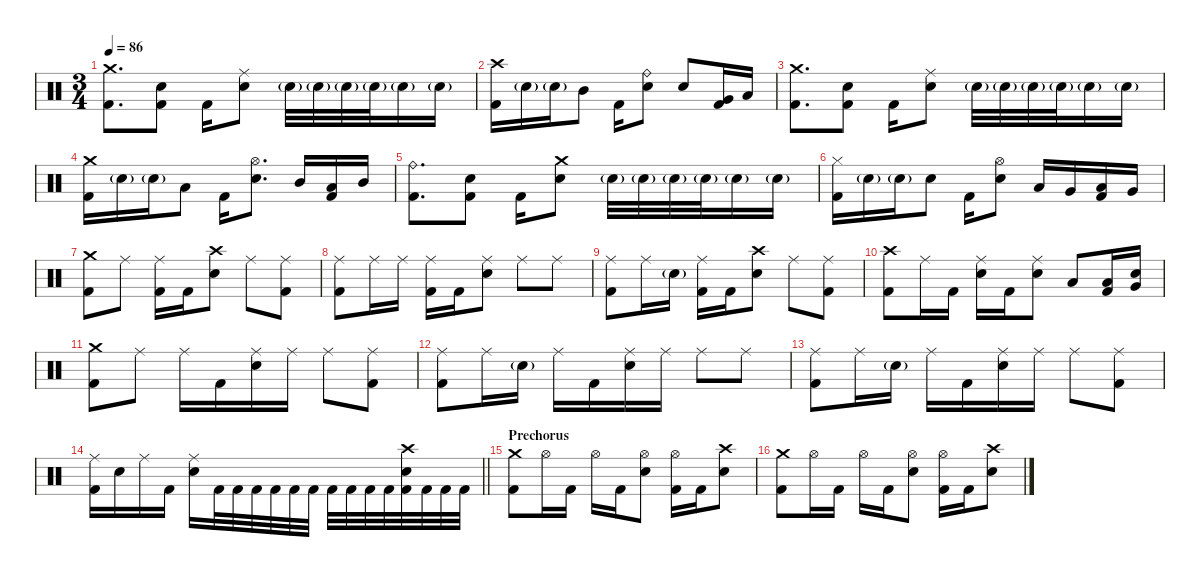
\defaultSystemsLayout 4
\hideDynamics
\bracketExtendMode nobrackets
\singleTrackTrackNamePolicy hidden
\multiTrackTrackNamePolicy hidden
\otherSystemsTrackNameOrientation horizontal
\track ("Drums" "drm.") {instrument percussion}
\staff {score}
\articulation defaults
\ts (3 4)
\tempo 86
\clef neutral
\ks c
("Crash medium (hit)" "Kick (hit) 2").8{d dy f beam Down} ("Snare (hit) 2" "Kick (hit) 2").8{beam Down} "Kick (hit) 2".16{beam Down} ("Ride (middle)" "Snare (hit) 2").8{beam Down} "Snare (hit) 2"{g}.32{dy mf beam Down} "Snare (hit) 2"{g}.32{beam Down} "Snare (hit) 2"{g}.32{beam Down} "Snare (hit) 2"{g}.32{beam Down} "Snare (hit) 2"{g}.16{beam Down} "Snare (hit) 2"{g}.16{beam Down} |
("Crash high (hit)" "Kick (hit) 2").16{dy f beam Down} "Snare (hit) 2"{g}.16{dy mf beam Down} "Snare (hit) 2"{g}.16{beam Down} "Mid Tom (hit)".8{dy f beam Down} "Kick (hit) 2".16{beam Down} ("Ride (bell)" "Snare (hit) 2").8{beam Down} "Snare (hit) 2".8{beam Up} ("Very Low Tom (hit)" "Kick (hit) 2").16{beam Up} "Low Tom (hit)".16{beam Up} |
("Crash medium (hit)" "Kick (hit) 2").8{d beam Down} ("Snare (hit) 2" "Kick (hit) 2").8{beam Down} "Kick (hit) 2".16{beam Down} ("Ride (middle)" "Snare (hit) 2").8{beam Down} "Snare (hit) 2"{g}.32{dy mf beam Down} "Snare (hit) 2"{g}.32{beam Down} "Snare (hit) 2"{g}.32{beam Down} "Snare (hit) 2"{g}.32{beam Down} "Snare (hit) 2"{g}.16{beam Down} "Snare (hit) 2"{g}.16{beam Down} |
("Crash medium (hit)" "Kick (hit) 2").16{dy f beam Down} "Snare (hit) 2"{g}.16{dy mf beam Down} "Snare (hit) 2"{g}.16{beam Down} "Low Tom (hit)".8{dy f beam Down} "Kick (hit) 2".16{beam Down} ("Hi-Hat (open)" "Snare (hit) 2").8{d beam Down} "Mid Tom (hit)".16{beam Up} ("Low Tom (hit)" "Kick (hit) 2").16{beam Up} "Mid Tom (hit)".16{beam Up} |
("Ride (bell)" "Kick (hit) 2").8{d beam Down} ("Snare (hit) 2" "Kick (hit) 2").8{beam Down} "Kick (hit) 2".16{beam Down} ("Crash medium (hit)" "Snare (hit) 2").8{beam Down} "Snare (hit) 2"{g}.32{dy mf beam Down} "Snare (hit) 2"{g}.32{beam Down} "Snare (hit) 2"{g}.32{beam Down} "Snare (hit) 2"{g}.32{beam Down} "Snare (hit) 2"{g}.16{beam Down} "Snare (hit) 2"{g}.16{beam Down} |
("Hi-Hat (closed)" "Kick (hit) 2").16{dy f beam Down} "Snare (hit) 2"{g}.16{dy mf beam Down} "Snare (hit) 2"{g}.16{beam Down} "Snare (hit) 2".8{dy f beam Down} "Kick (hit) 2".16{beam Down} ("Hi-Hat (open)" "Snare (hit) 2").8{beam Down} "Low Tom (hit)".16{beam Up} "Very Low Tom (hit)".16{beam Up} ("Low Floor Tom (hit)" "Kick (hit) 2").16{beam Up} "Very Low Tom (hit)".16{beam Up} |
("Crash medium (hit)" "Kick (hit) 2").8{beam Down} "Ride (middle)".8{beam Down} ("Ride (middle)" "Kick (hit) 2").16{beam Down} "Kick (hit) 2".16{beam Down} ("Crash high (hit)" "Snare (hit) 2").8{beam Down} "Ride (middle)".8{beam Down} ("Ride (middle)" "Kick (hit) 2").8{beam Down} |
("Ride (middle)" "Kick (hit) 2").8{beam Down} "Ride (middle)".16{beam Down} "Ride (middle)".16{beam Down} ("Ride (middle)" "Kick (hit) 2").16{beam Down} "Kick (hit) 2".16{beam Down} ("Ride (middle)" "Snare (hit) 2").8{beam Down} "Ride (middle)".8{beam Down} "Ride (middle)".8{beam Down} |
("Ride (middle)" "Kick (hit) 2").8{beam Down} "Ride (middle)".16{beam Down} "Snare (hit) 2"{g}.16{dy mf beam Down} ("Ride (middle)" "Kick (hit) 2").16{dy f beam Down} "Kick (hit) 2".16{beam Down} ("Crash high (hit)" "Snare (hit) 2").8{beam Down} "Ride (middle)".8{beam Down} ("Ride (middle)" "Kick (hit) 2").8{beam Down} |
("Crash high (hit)" "Kick (hit) 2").8{beam Down} "Ride (middle)".16{beam Down} "Kick (hit) 2".16{beam Down} ("Ride (middle)" "Snare (hit) 2").16{beam Down} "Kick (hit) 2".16{beam Down} ("Ride (middle)" "Snare (hit) 2").8{beam Down} "Low Tom (hit)".8{beam Up} ("Low Tom (hit)" "Kick (hit) 2").16{beam Up} ("Snare (hit) 2" "Very Low Tom (hit)").16{beam Up} |
("Crash medium (hit)" "Kick (hit) 2").8{beam Down} "Ride (middle)".8{beam Down} "Ride (middle)".16{beam Down} "Kick (hit) 2".16{beam Down} ("Ride (middle)" "Snare (hit) 2").16{beam Down} "Ride (middle)".16{beam Down} "Ride (middle)".8{beam Down} ("Ride (middle)" "Kick (hit) 2").8{beam Down} |
("Ride (middle)" "Kick (hit) 2").8{beam Down} "Ride (middle)".16{beam Down} "Snare (hit) 2"{g}.16{dy mf beam Down} "Ride (middle)".16{dy f beam Down} "Kick (hit) 2".16{beam Down} ("Ride (middle)" "Snare (hit) 2").16{beam Down} "Ride (middle)".16{beam Down} "Ride (middle)".8{beam Down} "Ride (middle)".8{beam Down} |
("Ride (middle)" "Kick (hit) 2").8{beam Down} "Ride (middle)".16{beam Down} "Snare (hit) 2"{g}.16{dy mf beam Down} "Ride (middle)".16{dy f beam Down} "Kick (hit) 2".16{beam Down} ("Ride (middle)" "Snare (hit) 2").16{beam Down} "Ride (middle)".16{beam Down} "Ride (middle)".8{beam Down} ("Ride (middle)" "Kick (hit) 2").8{beam Down} |
\barLineRight lightlight
("Ride (middle)" "Kick (hit) 2").16{beam Down} "Snare (hit) 2".16{beam Down} "Ride (middle)".16{beam Down} "Kick (hit) 2".16{beam Down} ("Ride (middle)" "Snare (hit) 2").16{beam Down} "Kick (hit) 2".32{beam Down} "Kick (hit) 2".32{beam Down} "Kick (hit) 2".32{beam Down} "Kick (hit) 2".32{beam Down} "Kick (hit) 2".32{beam Down} "Kick (hit) 2".32{beam Down} "Kick (hit) 2".32{beam Down} "Kick (hit) 2".32{beam Down} "Kick (hit) 2".32{beam Down} "Kick (hit) 2".32{beam Down} ("Crash high (hit)" "Snare (hit) 2" "Kick (hit) 2").32{beam Down} "Kick (hit) 2".32{beam Down} "Kick (hit) 2".32{beam Down} "Kick (hit) 2".32{beam Down} |
\section ("" "Prechorus")
("Crash medium (hit)" "Kick (hit) 2").8{beam Down} "Hi-Hat (open)".16{beam Down} "Kick (hit) 2".16{beam Down} "Hi-Hat (open)".16{beam Down} "Kick (hit) 2".16{beam Down} ("Hi-Hat (open)" "Snare (hit) 2").8{beam Down} ("Hi-Hat (open)" "Kick (hit) 2").16{beam Down} "Kick (hit) 2".16{beam Down} ("Crash high (hit)" "Snare (hit) 2").8{beam Down} |
("Crash medium (hit)" "Kick (hit) 2").8{beam Down} "Hi-Hat (open)".16{beam Down} "Kick (hit) 2".16{beam Down} "Hi-Hat (open)".16{beam Down} "Kick (hit) 2".16{beam Down} ("Hi-Hat (open)" "Snare (hit) 2").8{beam Down} ("Hi-Hat (open)" "Kick (hit) 2").16{beam Down} "Kick (hit) 2".16{beam Down} ("Crash high (hit)" "Snare (hit) 2").8{beam Down}
